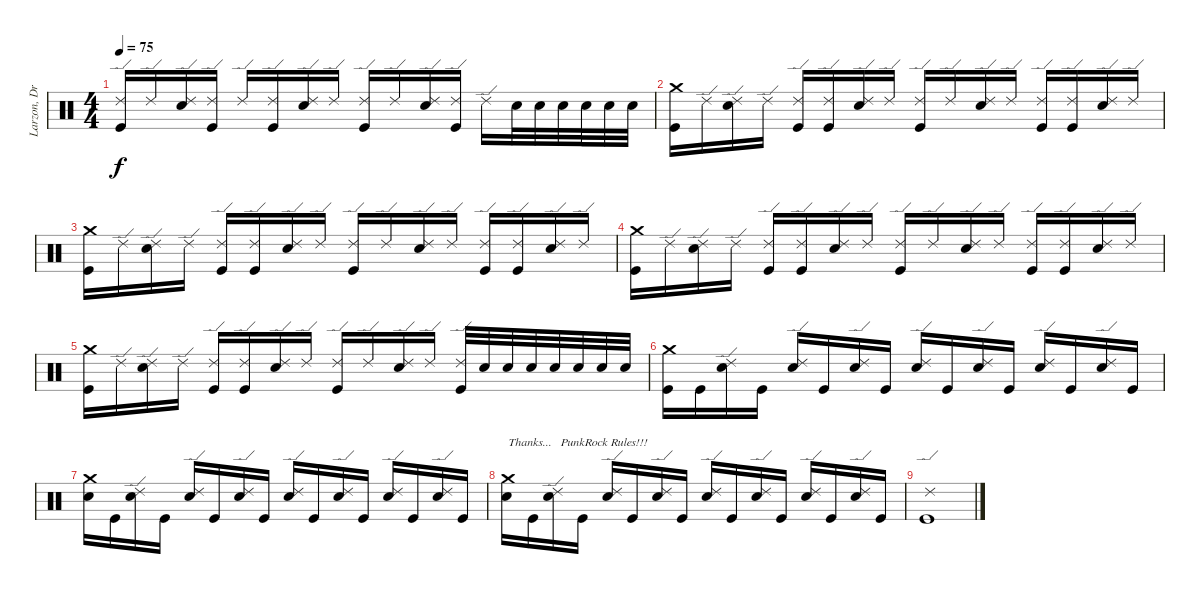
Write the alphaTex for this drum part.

\track ("Larzon, Drums" "Larzon, Dr") {instrument percussion}
\staff {score}
\articulation defaults
\ts (4 4)
\tempo 75
\clef neutral
\ks c
("Ride (edge) 2" "Kick (hit)").16{dy f} "Ride (edge) 2".16 ("Ride (edge) 2" "Snare (hit) 2").16 ("Ride (edge) 2" "Kick (hit)").16 "Ride (edge) 2".16 ("Ride (edge) 2" "Kick (hit)").16 ("Ride (edge) 2" "Snare (hit) 2").16 "Ride (edge) 2".16 ("Ride (edge) 2" "Kick (hit)").16 "Ride (edge) 2".16 ("Ride (edge) 2" "Snare (hit) 2").16 ("Ride (edge) 2" "Kick (hit)").16 "Ride (edge) 2".16 "Snare (hit) 2".32 "Snare (hit) 2".32 "Snare (hit) 2".32 "Snare (hit) 2".32 "Snare (hit) 2".32 "Snare (hit) 2".32 |
("Crash medium (hit)" "Kick (hit)").16 "Ride (edge) 2".16 ("Ride (edge) 2" "Snare (hit) 2").16 "Ride (edge) 2".16 ("Ride (edge) 2" "Kick (hit)").16 ("Ride (edge) 2" "Kick (hit)").16 ("Ride (edge) 2" "Snare (hit) 2").16 "Ride (edge) 2".16 ("Ride (edge) 2" "Kick (hit)").16 "Ride (edge) 2".16 ("Ride (edge) 2" "Snare (hit) 2").16 "Ride (edge) 2".16 ("Ride (edge) 2" "Kick (hit)").16 ("Ride (edge) 2" "Kick (hit)").16 ("Ride (edge) 2" "Snare (hit) 2").16 "Ride (edge) 2".16 |
("Crash medium (hit)" "Kick (hit)").16 "Ride (edge) 2".16 ("Ride (edge) 2" "Snare (hit) 2").16 "Ride (edge) 2".16 ("Ride (edge) 2" "Kick (hit)").16 ("Ride (edge) 2" "Kick (hit)").16 ("Ride (edge) 2" "Snare (hit) 2").16 "Ride (edge) 2".16 ("Ride (edge) 2" "Kick (hit)").16 "Ride (edge) 2".16 ("Ride (edge) 2" "Snare (hit) 2").16 "Ride (edge) 2".16 ("Ride (edge) 2" "Kick (hit)").16 ("Ride (edge) 2" "Kick (hit)").16 ("Ride (edge) 2" "Snare (hit) 2").16 "Ride (edge) 2".16 |
("Crash medium (hit)" "Kick (hit)").16 "Ride (edge) 2".16 ("Ride (edge) 2" "Snare (hit) 2").16 "Ride (edge) 2".16 ("Ride (edge) 2" "Kick (hit)").16 ("Ride (edge) 2" "Kick (hit)").16 ("Ride (edge) 2" "Snare (hit) 2").16 "Ride (edge) 2".16 ("Ride (edge) 2" "Kick (hit)").16 "Ride (edge) 2".16 ("Ride (edge) 2" "Snare (hit) 2").16 "Ride (edge) 2".16 ("Ride (edge) 2" "Kick (hit)").16 ("Ride (edge) 2" "Kick (hit)").16 ("Ride (edge) 2" "Snare (hit) 2").16 "Ride (edge) 2".16 |
("Crash medium (hit)" "Kick (hit)").16 "Ride (edge) 2".16 ("Ride (edge) 2" "Snare (hit) 2").16 "Ride (edge) 2".16 ("Ride (edge) 2" "Kick (hit)").16 ("Ride (edge) 2" "Kick (hit)").16 ("Ride (edge) 2" "Snare (hit) 2").16 "Ride (edge) 2".16 ("Ride (edge) 2" "Kick (hit)").16 "Ride (edge) 2".16 ("Ride (edge) 2" "Snare (hit) 2").16 "Ride (edge) 2".16 ("Ride (edge) 2" "Kick (hit)").32 "Snare (hit) 2".32 "Snare (hit) 2".32 "Snare (hit) 2".32 "Snare (hit) 2".32 "Snare (hit) 2".32 "Snare (hit) 2".32 "Snare (hit) 2".32 |
("Crash medium (hit)" "Kick (hit)").16 "Kick (hit)".16 ("Ride (edge) 2" "Snare (hit) 2").16 "Kick (hit)".16 ("Ride (edge) 2" "Snare (hit) 2").16 "Kick (hit)".16 ("Ride (edge) 2" "Snare (hit) 2").16 "Kick (hit)".16 ("Ride (edge) 2" "Snare (hit) 2").16 "Kick (hit)".16 ("Ride (edge) 2" "Snare (hit) 2").16 "Kick (hit)".16 ("Ride (edge) 2" "Snare (hit) 2").16 "Kick (hit)".16 ("Ride (edge) 2" "Snare (hit) 2").16 "Kick (hit)".16 |
("Crash medium (hit)" "Snare (hit) 2").16 "Kick (hit)".16 ("Ride (edge) 2" "Snare (hit) 2").16 "Kick (hit)".16 ("Ride (edge) 2" "Snare (hit) 2").16 "Kick (hit)".16 ("Ride (edge) 2" "Snare (hit) 2").16 "Kick (hit)".16 ("Ride (edge) 2" "Snare (hit) 2").16 "Kick (hit)".16 ("Ride (edge) 2" "Snare (hit) 2").16 "Kick (hit)".16 ("Ride (edge) 2" "Snare (hit) 2").16 "Kick (hit)".16 ("Ride (edge) 2" "Snare (hit) 2").16 "Kick (hit)".16 |
("Crash medium (hit)" "Snare (hit) 2").16{txt "Thanks...   PunkRock Rules!!!"} "Kick (hit)".16 ("Ride (edge) 2" "Snare (hit) 2").16 "Kick (hit)".16 ("Ride (edge) 2" "Snare (hit) 2").16 "Kick (hit)".16 ("Ride (edge) 2" "Snare (hit) 2").16 "Kick (hit)".16 ("Ride (edge) 2" "Snare (hit) 2").16 "Kick (hit)".16 ("Ride (edge) 2" "Snare (hit) 2").16 "Kick (hit)".16 ("Ride (edge) 2" "Snare (hit) 2").16 "Kick (hit)".16 ("Ride (edge) 2" "Snare (hit) 2").16 "Kick (hit)".16 |
("Ride (edge) 2" "Kick (hit)").1
